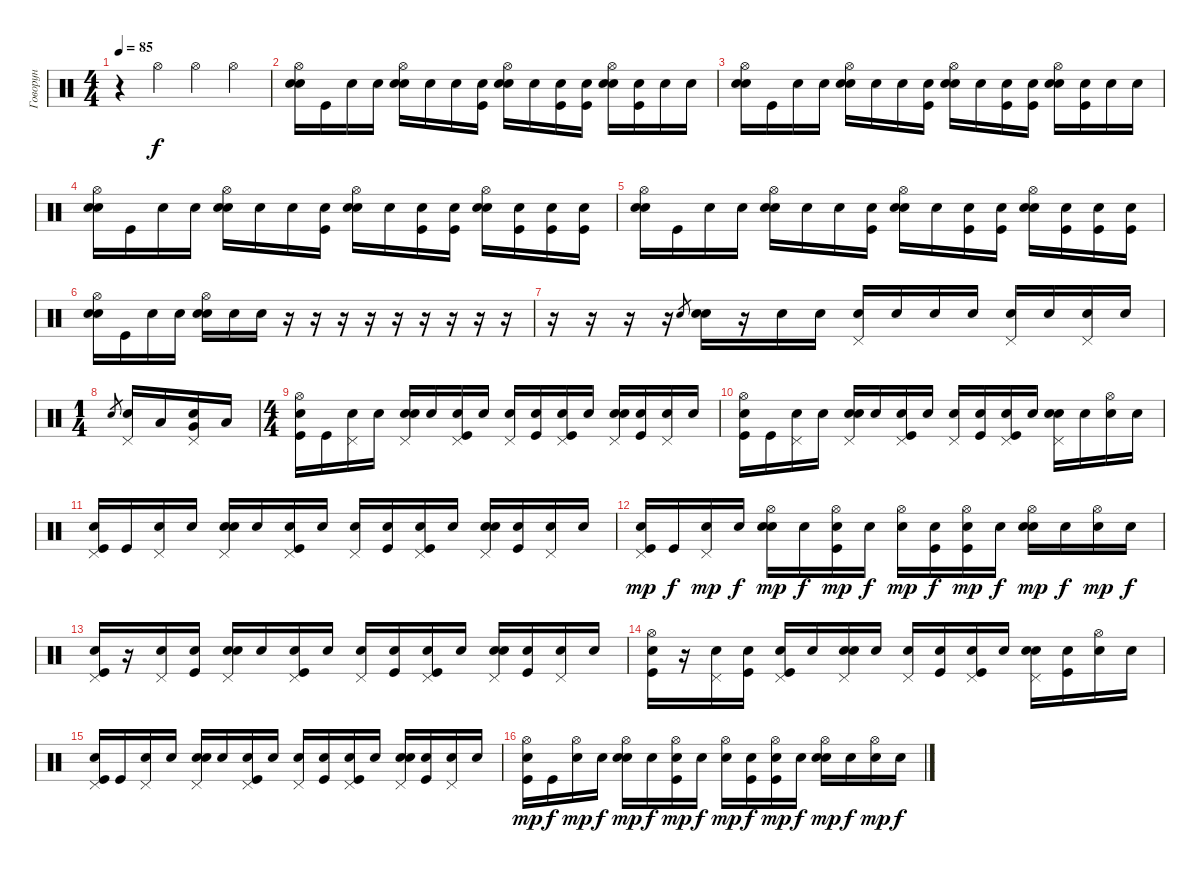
\track ("Говорун" "Говорун") {instrument percussion}
\staff {score}
\articulation defaults
\ts (4 4)
\tempo 85
\clef neutral
\ks c
r.4{dy f} "Hi-Hat (open)".4 "Hi-Hat (open)".4 "Hi-Hat (open)".4 |
("Snare (hit)"{x} "Hi-Hat (open)" "Snare (hit) 2").16 "Kick (hit)".16 "Snare (hit)"{x}.16 "Snare (hit)"{x}.16 ("Snare (hit)"{x} "Hi-Hat (open)" "Snare (hit) 2").16 "Snare (hit)"{x}.16 "Snare (hit)"{x}.16 ("Snare (hit)"{x} "Kick (hit)").16 ("Snare (hit)"{x} "Hi-Hat (open)" "Snare (hit) 2").16 "Snare (hit)"{x}.16 ("Snare (hit)"{x} "Kick (hit)").16 ("Snare (hit)"{x} "Kick (hit)").16 ("Snare (hit)"{x} "Hi-Hat (open)" "Snare (hit) 2").16 ("Snare (hit)"{x} "Kick (hit)").16 "Snare (hit)"{x}.16 "Snare (hit)"{x}.16 |
("Snare (hit)"{x} "Hi-Hat (open)" "Snare (hit) 2").16 "Kick (hit)".16 "Snare (hit)"{x}.16 "Snare (hit)"{x}.16 ("Snare (hit)"{x} "Hi-Hat (open)" "Snare (hit) 2").16 "Snare (hit)"{x}.16 "Snare (hit)"{x}.16 ("Snare (hit)"{x} "Kick (hit)").16 ("Snare (hit)"{x} "Hi-Hat (open)" "Snare (hit) 2").16 "Snare (hit)"{x}.16 ("Snare (hit)"{x} "Kick (hit)").16 ("Snare (hit)"{x} "Kick (hit)").16 ("Snare (hit)"{x} "Hi-Hat (open)" "Snare (hit) 2").16 ("Snare (hit)"{x} "Kick (hit)").16 "Snare (hit)"{x}.16 "Snare (hit)"{x}.16 |
("Snare (hit)"{x} "Hi-Hat (open)" "Snare (hit) 2").16 "Kick (hit)".16 "Snare (hit)"{x}.16 "Snare (hit)"{x}.16 ("Snare (hit)"{x} "Hi-Hat (open)" "Snare (hit) 2").16 "Snare (hit)"{x}.16 "Snare (hit)"{x}.16 ("Snare (hit)"{x} "Kick (hit)").16 ("Snare (hit)"{x} "Hi-Hat (open)" "Snare (hit) 2").16 "Snare (hit)"{x}.16 ("Snare (hit)"{x} "Kick (hit)").16 ("Snare (hit)"{x} "Kick (hit)").16 ("Snare (hit)"{x} "Hi-Hat (open)" "Snare (hit) 2").16 ("Snare (hit)"{x} "Kick (hit)").16 ("Snare (hit)"{x} "Kick (hit)").16 ("Snare (hit)"{x} "Kick (hit)").16 |
("Snare (hit)"{x} "Hi-Hat (open)" "Snare (hit) 2").16 "Kick (hit)".16 "Snare (hit)"{x}.16 "Snare (hit)"{x}.16 ("Snare (hit)"{x} "Hi-Hat (open)" "Snare (hit) 2").16 "Snare (hit)"{x}.16 "Snare (hit)"{x}.16 ("Snare (hit)"{x} "Kick (hit)").16 ("Snare (hit)"{x} "Hi-Hat (open)" "Snare (hit) 2").16 "Snare (hit)"{x}.16 ("Snare (hit)"{x} "Kick (hit)").16 ("Snare (hit)"{x} "Kick (hit)").16 ("Snare (hit)"{x} "Hi-Hat (open)" "Snare (hit) 2").16 ("Snare (hit)"{x} "Kick (hit)").16 ("Snare (hit)"{x} "Kick (hit)").16 ("Snare (hit)"{x} "Kick (hit)").16 |
("Snare (hit)"{x} "Hi-Hat (open)" "Snare (hit) 2").16 "Kick (hit)".16 "Snare (hit)"{x}.16 "Snare (hit)"{x}.16 ("Snare (hit)"{x} "Hi-Hat (open)" "Snare (hit) 2").16 "Snare (hit)"{x}.16 "Snare (hit)"{x}.16 r.16 r.16 r.16 r.16 r.16 r.16 r.16 r.16 r.16 |
r.16 r.16 r.16 r.16 "Electric Snare (hit)".8{gr} ("Snare (hit)"{x} "Electric Snare (hit)").16 r.16 "Snare (hit)"{x}.16 "Snare (hit)"{x}.16 ("Snare (hit)"{x} "Pedal Hi-Hat (hit)").16 "Snare (hit)"{x}.16 "Snare (hit)"{x}.16 "Snare (hit)"{x}.16 ("Snare (hit)"{x} "Pedal Hi-Hat (hit)").16 "Snare (hit)"{x}.16 ("Snare (hit)"{x} "Pedal Hi-Hat (hit)").16 "Snare (hit)"{x}.16 |
\ts (1 4)
"Electric Snare (hit)".8{gr} ("Pedal Hi-Hat (hit)" "Electric Snare (hit)").16 "Low Tom (hit)".16 ("Pedal Hi-Hat (hit)" "Very Low Tom (hit)" "Electric Snare (hit)").16 "Low Floor Tom (hit)".16 |
\ts (4 4)
("Snare (hit)"{x} "Hi-Hat (open)" "Kick (hit)").16 "Kick (hit)".16 ("Snare (hit)"{x} "Pedal Hi-Hat (hit)").16 "Snare (hit)"{x}.16 ("Snare (hit)"{x} "Pedal Hi-Hat (hit)" "Electric Snare (hit)").16 "Snare (hit)"{x}.16 ("Snare (hit)"{x} "Pedal Hi-Hat (hit)" "Kick (hit)").16 "Snare (hit)"{x}.16 ("Snare (hit)"{x} "Pedal Hi-Hat (hit)").16 ("Snare (hit)"{x} "Kick (hit)").16 ("Snare (hit)"{x} "Pedal Hi-Hat (hit)" "Kick (hit)").16 "Snare (hit)"{x}.16 ("Snare (hit)"{x} "Pedal Hi-Hat (hit)" "Electric Snare (hit)").16 ("Snare (hit)"{x} "Kick (hit)").16 ("Snare (hit)"{x} "Pedal Hi-Hat (hit)").16 "Snare (hit)"{x}.16 |
("Snare (hit)"{x} "Hi-Hat (open)" "Kick (hit)").16 "Kick (hit)".16 ("Snare (hit)"{x} "Pedal Hi-Hat (hit)").16 "Snare (hit)"{x}.16 ("Snare (hit)"{x} "Pedal Hi-Hat (hit)" "Electric Snare (hit)").16 "Snare (hit)"{x}.16 ("Snare (hit)"{x} "Pedal Hi-Hat (hit)" "Kick (hit)").16 "Snare (hit)"{x}.16 ("Snare (hit)"{x} "Pedal Hi-Hat (hit)").16 ("Snare (hit)"{x} "Kick (hit)").16 ("Snare (hit)"{x} "Pedal Hi-Hat (hit)" "Kick (hit)").16 "Snare (hit)"{x}.16 ("Snare (hit)"{x} "Pedal Hi-Hat (hit)" "Electric Snare (hit)").16 "Snare (hit)"{x}.16 ("Snare (hit)"{x} "Hi-Hat (open)").16 "Snare (hit)"{x}.16 |
("Snare (hit)"{x} "Pedal Hi-Hat (hit)" "Kick (hit)").16 "Kick (hit)".16 ("Snare (hit)"{x} "Pedal Hi-Hat (hit)").16 "Snare (hit)"{x}.16 ("Snare (hit)"{x} "Pedal Hi-Hat (hit)" "Electric Snare (hit)").16 "Snare (hit)"{x}.16 ("Snare (hit)"{x} "Pedal Hi-Hat (hit)" "Kick (hit)").16 "Snare (hit)"{x}.16 ("Snare (hit)"{x} "Pedal Hi-Hat (hit)").16 ("Snare (hit)"{x} "Kick (hit)").16 ("Snare (hit)"{x} "Pedal Hi-Hat (hit)" "Kick (hit)").16 "Snare (hit)"{x}.16 ("Snare (hit)"{x} "Pedal Hi-Hat (hit)" "Electric Snare (hit)").16 ("Snare (hit)"{x} "Kick (hit)").16 ("Snare (hit)"{x} "Pedal Hi-Hat (hit)").16 "Snare (hit)"{x}.16 |
("Snare (hit)"{x} "Pedal Hi-Hat (hit)" "Kick (hit)").16{dy mp} "Kick (hit)".16{dy f} ("Snare (hit)"{x} "Pedal Hi-Hat (hit)").16{dy mp} "Snare (hit)"{x}.16{dy f} ("Snare (hit)"{x} "Hi-Hat (open)" "Electric Snare (hit)").16{dy mp} "Snare (hit)"{x}.16{dy f} ("Snare (hit)"{x} "Hi-Hat (open)" "Kick (hit)").16{dy mp} "Snare (hit)"{x}.16{dy f} ("Snare (hit)"{x} "Hi-Hat (open)").16{dy mp} ("Snare (hit)"{x} "Kick (hit)").16{dy f} ("Snare (hit)"{x} "Hi-Hat (open)" "Kick (hit)").16{dy mp} "Snare (hit)"{x}.16{dy f} ("Snare (hit)"{x} "Hi-Hat (open)" "Electric Snare (hit)").16{dy mp} "Snare (hit)"{x}.16{dy f} ("Snare (hit)"{x} "Hi-Hat (open)").16{dy mp} "Snare (hit)"{x}.16{dy f} |
("Snare (hit)"{x} "Pedal Hi-Hat (hit)" "Kick (hit)").16 r.16 ("Snare (hit)"{x} "Pedal Hi-Hat (hit)").16 ("Snare (hit)"{x} "Kick (hit)").16 ("Snare (hit)"{x} "Pedal Hi-Hat (hit)" "Electric Snare (hit)").16 "Snare (hit)"{x}.16 ("Snare (hit)"{x} "Pedal Hi-Hat (hit)" "Kick (hit)").16 "Snare (hit)"{x}.16 ("Snare (hit)"{x} "Pedal Hi-Hat (hit)").16 ("Snare (hit)"{x} "Kick (hit)").16 ("Snare (hit)"{x} "Pedal Hi-Hat (hit)" "Kick (hit)").16 "Snare (hit)"{x}.16 ("Snare (hit)"{x} "Pedal Hi-Hat (hit)" "Electric Snare (hit)").16 ("Snare (hit)"{x} "Kick (hit)").16 ("Snare (hit)"{x} "Pedal Hi-Hat (hit)").16 "Snare (hit)"{x}.16 |
("Snare (hit)"{x} "Hi-Hat (open)" "Kick (hit)").16 r.16 ("Snare (hit)"{x} "Pedal Hi-Hat (hit)").16 ("Snare (hit)"{x} "Kick (hit)").16 ("Snare (hit)"{x} "Pedal Hi-Hat (hit)" "Kick (hit)").16 "Snare (hit)"{x}.16 ("Snare (hit)"{x} "Pedal Hi-Hat (hit)" "Snare (hit) 2").16 "Snare (hit)"{x}.16 ("Snare (hit)"{x} "Pedal Hi-Hat (hit)").16 ("Snare (hit)"{x} "Kick (hit)").16 ("Snare (hit)"{x} "Pedal Hi-Hat (hit)" "Kick (hit)").16 "Snare (hit)"{x}.16 ("Snare (hit)"{x} "Pedal Hi-Hat (hit)" "Snare (hit) 2").16 ("Snare (hit)"{x} "Kick (hit)").16 ("Snare (hit)"{x} "Hi-Hat (open)").16 "Snare (hit)"{x}.16 |
("Snare (hit)"{x} "Pedal Hi-Hat (hit)" "Kick (hit)").16 "Kick (hit)".16 ("Snare (hit)"{x} "Pedal Hi-Hat (hit)").16 "Snare (hit)"{x}.16 ("Snare (hit)"{x} "Pedal Hi-Hat (hit)" "Electric Snare (hit)").16 "Snare (hit)"{x}.16 ("Snare (hit)"{x} "Pedal Hi-Hat (hit)" "Kick (hit)").16 "Snare (hit)"{x}.16 ("Snare (hit)"{x} "Pedal Hi-Hat (hit)").16 ("Snare (hit)"{x} "Kick (hit)").16 ("Snare (hit)"{x} "Pedal Hi-Hat (hit)" "Kick (hit)").16 "Snare (hit)"{x}.16 ("Snare (hit)"{x} "Pedal Hi-Hat (hit)" "Electric Snare (hit)").16 ("Snare (hit)"{x} "Kick (hit)").16 ("Snare (hit)"{x} "Pedal Hi-Hat (hit)").16 "Snare (hit)"{x}.16 |
("Snare (hit)"{x} "Hi-Hat (open)" "Kick (hit)").16{dy mp} "Kick (hit)".16{dy f} ("Snare (hit)"{x} "Hi-Hat (open)").16{dy mp} "Snare (hit)"{x}.16{dy f} ("Snare (hit)"{x} "Hi-Hat (open)" "Electric Snare (hit)").16{dy mp} "Snare (hit)"{x}.16{dy f} ("Snare (hit)"{x} "Hi-Hat (open)" "Kick (hit)").16{dy mp} "Snare (hit)"{x}.16{dy f} ("Snare (hit)"{x} "Hi-Hat (open)").16{dy mp} ("Snare (hit)"{x} "Kick (hit)").16{dy f} ("Snare (hit)"{x} "Hi-Hat (open)" "Kick (hit)").16{dy mp} "Snare (hit)"{x}.16{dy f} ("Snare (hit)"{x} "Hi-Hat (open)" "Electric Snare (hit)").16{dy mp} "Snare (hit)"{x}.16{dy f} ("Snare (hit)"{x} "Hi-Hat (open)").16{dy mp} "Snare (hit)"{x}.16{dy f}
